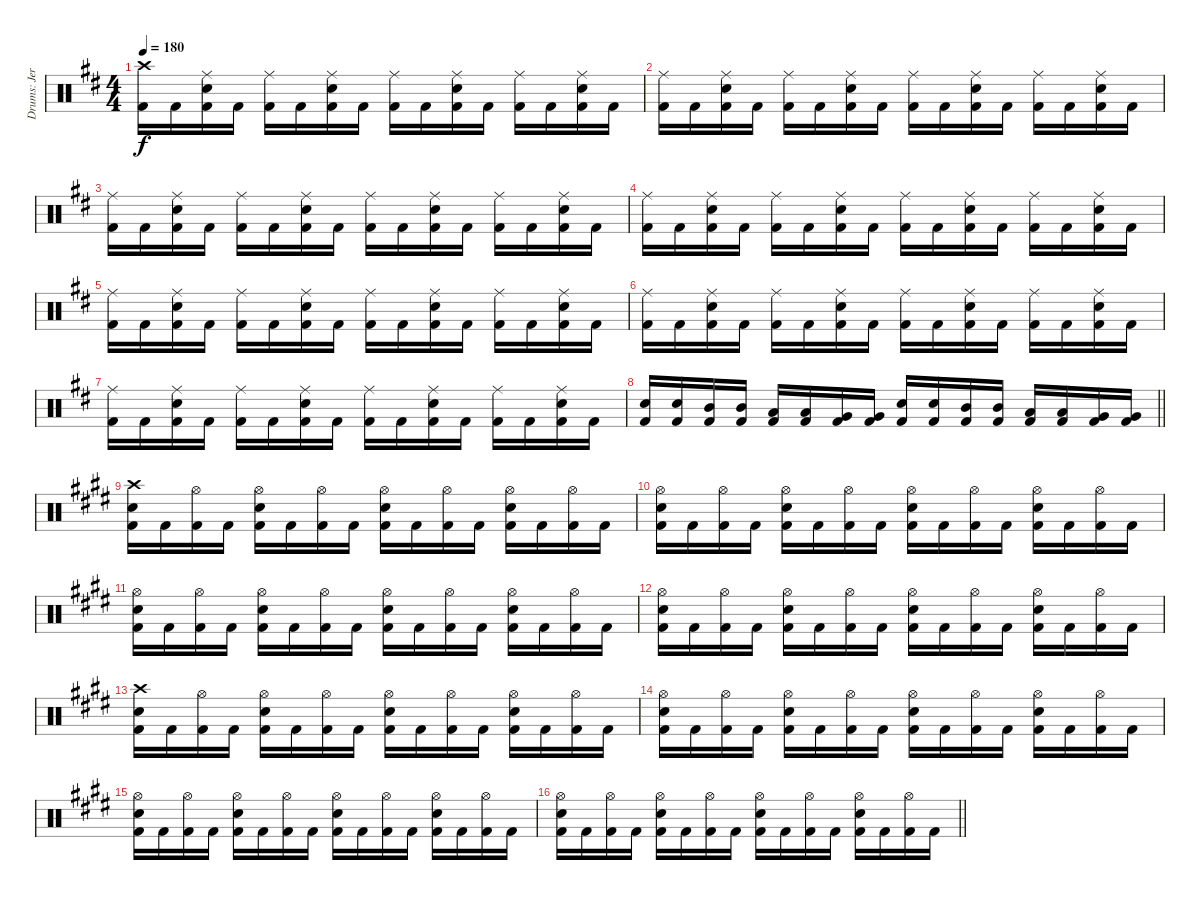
\track ("Drums: Jere Luokkamäki" "Drums: Jer") {instrument percussion}
\staff {score}
\articulation defaults
\ts (4 4)
\tempo 180
\clef neutral
\ks bminor
("Crash high (hit)" "Kick (hit) 2").16{dy f} "Kick (hit) 2".16 ("Ride (middle)" "Electric Snare (hit)" "Kick (hit) 2").16 "Kick (hit) 2".16 ("Ride (middle)" "Kick (hit) 2").16 "Kick (hit) 2".16 ("Ride (middle)" "Electric Snare (hit)" "Kick (hit) 2").16 "Kick (hit) 2".16 ("Ride (middle)" "Kick (hit) 2").16 "Kick (hit) 2".16 ("Ride (middle)" "Electric Snare (hit)" "Kick (hit) 2").16 "Kick (hit) 2".16 ("Ride (middle)" "Kick (hit) 2").16 "Kick (hit) 2".16 ("Ride (middle)" "Electric Snare (hit)" "Kick (hit) 2").16 "Kick (hit) 2".16 |
("Ride (middle)" "Kick (hit) 2").16 "Kick (hit) 2".16 ("Ride (middle)" "Electric Snare (hit)" "Kick (hit) 2").16 "Kick (hit) 2".16 ("Ride (middle)" "Kick (hit) 2").16 "Kick (hit) 2".16 ("Ride (middle)" "Electric Snare (hit)" "Kick (hit) 2").16 "Kick (hit) 2".16 ("Ride (middle)" "Kick (hit) 2").16 "Kick (hit) 2".16 ("Ride (middle)" "Electric Snare (hit)" "Kick (hit) 2").16 "Kick (hit) 2".16 ("Ride (middle)" "Kick (hit) 2").16 "Kick (hit) 2".16 ("Ride (middle)" "Electric Snare (hit)" "Kick (hit) 2").16 "Kick (hit) 2".16 |
("Ride (middle)" "Kick (hit) 2").16 "Kick (hit) 2".16 ("Ride (middle)" "Electric Snare (hit)" "Kick (hit) 2").16 "Kick (hit) 2".16 ("Ride (middle)" "Kick (hit) 2").16 "Kick (hit) 2".16 ("Ride (middle)" "Electric Snare (hit)" "Kick (hit) 2").16 "Kick (hit) 2".16 ("Ride (middle)" "Kick (hit) 2").16 "Kick (hit) 2".16 ("Ride (middle)" "Electric Snare (hit)" "Kick (hit) 2").16 "Kick (hit) 2".16 ("Ride (middle)" "Kick (hit) 2").16 "Kick (hit) 2".16 ("Ride (middle)" "Electric Snare (hit)" "Kick (hit) 2").16 "Kick (hit) 2".16 |
("Ride (middle)" "Kick (hit) 2").16 "Kick (hit) 2".16 ("Ride (middle)" "Electric Snare (hit)" "Kick (hit) 2").16 "Kick (hit) 2".16 ("Ride (middle)" "Kick (hit) 2").16 "Kick (hit) 2".16 ("Ride (middle)" "Electric Snare (hit)" "Kick (hit) 2").16 "Kick (hit) 2".16 ("Ride (middle)" "Kick (hit) 2").16 "Kick (hit) 2".16 ("Ride (middle)" "Electric Snare (hit)" "Kick (hit) 2").16 "Kick (hit) 2".16 ("Ride (middle)" "Kick (hit) 2").16 "Kick (hit) 2".16 ("Ride (middle)" "Electric Snare (hit)" "Kick (hit) 2").16 "Kick (hit) 2".16 |
("Ride (middle)" "Kick (hit) 2").16 "Kick (hit) 2".16 ("Ride (middle)" "Electric Snare (hit)" "Kick (hit) 2").16 "Kick (hit) 2".16 ("Ride (middle)" "Kick (hit) 2").16 "Kick (hit) 2".16 ("Ride (middle)" "Electric Snare (hit)" "Kick (hit) 2").16 "Kick (hit) 2".16 ("Ride (middle)" "Kick (hit) 2").16 "Kick (hit) 2".16 ("Ride (middle)" "Electric Snare (hit)" "Kick (hit) 2").16 "Kick (hit) 2".16 ("Ride (middle)" "Kick (hit) 2").16 "Kick (hit) 2".16 ("Ride (middle)" "Electric Snare (hit)" "Kick (hit) 2").16 "Kick (hit) 2".16 |
("Ride (middle)" "Kick (hit) 2").16 "Kick (hit) 2".16 ("Ride (middle)" "Electric Snare (hit)" "Kick (hit) 2").16 "Kick (hit) 2".16 ("Ride (middle)" "Kick (hit) 2").16 "Kick (hit) 2".16 ("Ride (middle)" "Electric Snare (hit)" "Kick (hit) 2").16 "Kick (hit) 2".16 ("Ride (middle)" "Kick (hit) 2").16 "Kick (hit) 2".16 ("Ride (middle)" "Electric Snare (hit)" "Kick (hit) 2").16 "Kick (hit) 2".16 ("Ride (middle)" "Kick (hit) 2").16 "Kick (hit) 2".16 ("Ride (middle)" "Electric Snare (hit)" "Kick (hit) 2").16 "Kick (hit) 2".16 |
("Ride (middle)" "Kick (hit) 2").16 "Kick (hit) 2".16 ("Ride (middle)" "Electric Snare (hit)" "Kick (hit) 2").16 "Kick (hit) 2".16 ("Ride (middle)" "Kick (hit) 2").16 "Kick (hit) 2".16 ("Ride (middle)" "Electric Snare (hit)" "Kick (hit) 2").16 "Kick (hit) 2".16 ("Ride (middle)" "Kick (hit) 2").16 "Kick (hit) 2".16 ("Ride (middle)" "Electric Snare (hit)" "Kick (hit) 2").16 "Kick (hit) 2".16 ("Ride (middle)" "Kick (hit) 2").16 "Kick (hit) 2".16 ("Ride (middle)" "Electric Snare (hit)" "Kick (hit) 2").16 "Kick (hit) 2".16 |
\barLineRight lightlight
("Electric Snare (hit)" "Kick (hit) 2").16 ("Electric Snare (hit)" "Kick (hit) 2").16 ("Mid Tom (hit)" "Kick (hit) 2").16 ("Mid Tom (hit)" "Kick (hit) 2").16 ("Low Tom (hit)" "Kick (hit) 2").16 ("Low Tom (hit)" "Kick (hit) 2").16 ("Very Low Tom (hit)" "Kick (hit) 2").16 ("Very Low Tom (hit)" "Kick (hit) 2").16 ("Electric Snare (hit)" "Kick (hit) 2").16 ("Electric Snare (hit)" "Kick (hit) 2").16 ("Mid Tom (hit)" "Kick (hit) 2").16 ("Mid Tom (hit)" "Kick (hit) 2").16 ("Low Tom (hit)" "Kick (hit) 2").16 ("Low Tom (hit)" "Kick (hit) 2").16 ("Very Low Tom (hit)" "Kick (hit) 2").16 ("Very Low Tom (hit)" "Kick (hit) 2").16 |
\section ("" "")
\ks c#minor
("Crash high (hit)" "Electric Snare (hit)" "Kick (hit) 2").16 "Kick (hit) 2".16 ("Hi-Hat (open)" "Kick (hit) 2").16 "Kick (hit) 2".16 ("Hi-Hat (open)" "Electric Snare (hit)" "Kick (hit) 2").16 "Kick (hit) 2".16 ("Hi-Hat (open)" "Kick (hit) 2").16 "Kick (hit) 2".16 ("Hi-Hat (open)" "Electric Snare (hit)" "Kick (hit) 2").16 "Kick (hit) 2".16 ("Hi-Hat (open)" "Kick (hit) 2").16 "Kick (hit) 2".16 ("Hi-Hat (open)" "Electric Snare (hit)" "Kick (hit) 2").16 "Kick (hit) 2".16 ("Hi-Hat (open)" "Kick (hit) 2").16 "Kick (hit) 2".16 |
("Hi-Hat (open)" "Electric Snare (hit)" "Kick (hit) 2").16 "Kick (hit) 2".16 ("Hi-Hat (open)" "Kick (hit) 2").16 "Kick (hit) 2".16 ("Hi-Hat (open)" "Electric Snare (hit)" "Kick (hit) 2").16 "Kick (hit) 2".16 ("Hi-Hat (open)" "Kick (hit) 2").16 "Kick (hit) 2".16 ("Hi-Hat (open)" "Electric Snare (hit)" "Kick (hit) 2").16 "Kick (hit) 2".16 ("Hi-Hat (open)" "Kick (hit) 2").16 "Kick (hit) 2".16 ("Hi-Hat (open)" "Electric Snare (hit)" "Kick (hit) 2").16 "Kick (hit) 2".16 ("Hi-Hat (open)" "Kick (hit) 2").16 "Kick (hit) 2".16 |
("Hi-Hat (open)" "Electric Snare (hit)" "Kick (hit) 2").16 "Kick (hit) 2".16 ("Hi-Hat (open)" "Kick (hit) 2").16 "Kick (hit) 2".16 ("Hi-Hat (open)" "Electric Snare (hit)" "Kick (hit) 2").16 "Kick (hit) 2".16 ("Hi-Hat (open)" "Kick (hit) 2").16 "Kick (hit) 2".16 ("Hi-Hat (open)" "Electric Snare (hit)" "Kick (hit) 2").16 "Kick (hit) 2".16 ("Hi-Hat (open)" "Kick (hit) 2").16 "Kick (hit) 2".16 ("Hi-Hat (open)" "Electric Snare (hit)" "Kick (hit) 2").16 "Kick (hit) 2".16 ("Hi-Hat (open)" "Kick (hit) 2").16 "Kick (hit) 2".16 |
("Hi-Hat (open)" "Electric Snare (hit)" "Kick (hit) 2").16 "Kick (hit) 2".16 ("Hi-Hat (open)" "Kick (hit) 2").16 "Kick (hit) 2".16 ("Hi-Hat (open)" "Electric Snare (hit)" "Kick (hit) 2").16 "Kick (hit) 2".16 ("Hi-Hat (open)" "Kick (hit) 2").16 "Kick (hit) 2".16 ("Hi-Hat (open)" "Electric Snare (hit)" "Kick (hit) 2").16 "Kick (hit) 2".16 ("Hi-Hat (open)" "Kick (hit) 2").16 "Kick (hit) 2".16 ("Hi-Hat (open)" "Electric Snare (hit)" "Kick (hit) 2").16 "Kick (hit) 2".16 ("Hi-Hat (open)" "Kick (hit) 2").16 "Kick (hit) 2".16 |
("Crash high (hit)" "Electric Snare (hit)" "Kick (hit) 2").16 "Kick (hit) 2".16 ("Hi-Hat (open)" "Kick (hit) 2").16 "Kick (hit) 2".16 ("Hi-Hat (open)" "Electric Snare (hit)" "Kick (hit) 2").16 "Kick (hit) 2".16 ("Hi-Hat (open)" "Kick (hit) 2").16 "Kick (hit) 2".16 ("Hi-Hat (open)" "Electric Snare (hit)" "Kick (hit) 2").16 "Kick (hit) 2".16 ("Hi-Hat (open)" "Kick (hit) 2").16 "Kick (hit) 2".16 ("Hi-Hat (open)" "Electric Snare (hit)" "Kick (hit) 2").16 "Kick (hit) 2".16 ("Hi-Hat (open)" "Kick (hit) 2").16 "Kick (hit) 2".16 |
("Hi-Hat (open)" "Electric Snare (hit)" "Kick (hit) 2").16 "Kick (hit) 2".16 ("Hi-Hat (open)" "Kick (hit) 2").16 "Kick (hit) 2".16 ("Hi-Hat (open)" "Electric Snare (hit)" "Kick (hit) 2").16 "Kick (hit) 2".16 ("Hi-Hat (open)" "Kick (hit) 2").16 "Kick (hit) 2".16 ("Hi-Hat (open)" "Electric Snare (hit)" "Kick (hit) 2").16 "Kick (hit) 2".16 ("Hi-Hat (open)" "Kick (hit) 2").16 "Kick (hit) 2".16 ("Hi-Hat (open)" "Electric Snare (hit)" "Kick (hit) 2").16 "Kick (hit) 2".16 ("Hi-Hat (open)" "Kick (hit) 2").16 "Kick (hit) 2".16 |
("Hi-Hat (open)" "Electric Snare (hit)" "Kick (hit) 2").16 "Kick (hit) 2".16 ("Hi-Hat (open)" "Kick (hit) 2").16 "Kick (hit) 2".16 ("Hi-Hat (open)" "Electric Snare (hit)" "Kick (hit) 2").16 "Kick (hit) 2".16 ("Hi-Hat (open)" "Kick (hit) 2").16 "Kick (hit) 2".16 ("Hi-Hat (open)" "Electric Snare (hit)" "Kick (hit) 2").16 "Kick (hit) 2".16 ("Hi-Hat (open)" "Kick (hit) 2").16 "Kick (hit) 2".16 ("Hi-Hat (open)" "Electric Snare (hit)" "Kick (hit) 2").16 "Kick (hit) 2".16 ("Hi-Hat (open)" "Kick (hit) 2").16 "Kick (hit) 2".16 |
\barLineRight lightlight
("Hi-Hat (open)" "Electric Snare (hit)" "Kick (hit) 2").16 "Kick (hit) 2".16 ("Hi-Hat (open)" "Kick (hit) 2").16 "Kick (hit) 2".16 ("Hi-Hat (open)" "Electric Snare (hit)" "Kick (hit) 2").16 "Kick (hit) 2".16 ("Hi-Hat (open)" "Kick (hit) 2").16 "Kick (hit) 2".16 ("Hi-Hat (open)" "Electric Snare (hit)" "Kick (hit) 2").16 "Kick (hit) 2".16 ("Hi-Hat (open)" "Kick (hit) 2").16 "Kick (hit) 2".16 ("Hi-Hat (open)" "Electric Snare (hit)" "Kick (hit) 2").16 "Kick (hit) 2".16 ("Hi-Hat (open)" "Kick (hit) 2").16 "Kick (hit) 2".16
